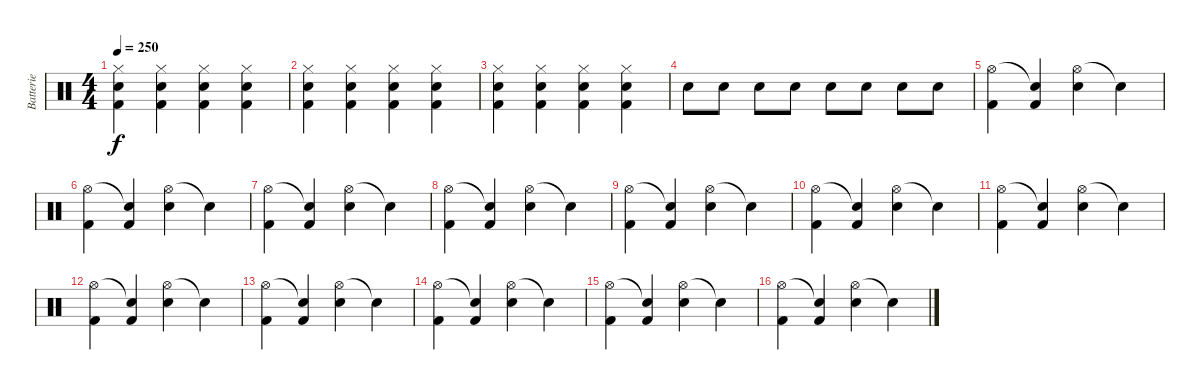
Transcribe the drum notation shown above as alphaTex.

\track ("Batterie" "Batterie") {instrument percussion}
\staff {score}
\articulation defaults
\ts (4 4)
\tempo 250
\clef neutral
\ks c
("Hi-Hat (closed)" "Snare (hit) 2" "Kick (hit) 2").4{dy f} ("Hi-Hat (closed)" "Snare (hit) 2" "Kick (hit) 2").4 ("Hi-Hat (closed)" "Snare (hit) 2" "Kick (hit) 2").4 ("Hi-Hat (closed)" "Snare (hit) 2" "Kick (hit) 2").4 |
("Hi-Hat (closed)" "Snare (hit) 2" "Kick (hit) 2").4 ("Hi-Hat (closed)" "Snare (hit) 2" "Kick (hit) 2").4 ("Hi-Hat (closed)" "Snare (hit) 2" "Kick (hit) 2").4 ("Hi-Hat (closed)" "Snare (hit) 2" "Kick (hit) 2").4 |
("Hi-Hat (closed)" "Snare (hit) 2" "Kick (hit) 2").4 ("Hi-Hat (closed)" "Snare (hit) 2" "Kick (hit) 2").4 ("Hi-Hat (closed)" "Snare (hit) 2" "Kick (hit) 2").4 ("Hi-Hat (closed)" "Snare (hit) 2" "Kick (hit) 2").4 |
"Electric Snare (hit)".8 "Electric Snare (hit)".8 "Electric Snare (hit)".8 "Electric Snare (hit)".8 "Electric Snare (hit)".8 "Electric Snare (hit)".8 "Electric Snare (hit)".8 "Electric Snare (hit)".8 |
("Hi-Hat (open)" "Kick (hit) 2").4 ("Snare (hit)"{t} "Kick (hit) 2").4 ("Hi-Hat (open)" "Electric Snare (hit)").4 "Snare (hit)"{t}.4 |
("Hi-Hat (open)" "Kick (hit) 2").4 ("Snare (hit)"{t} "Kick (hit) 2").4 ("Hi-Hat (open)" "Electric Snare (hit)").4 "Snare (hit)"{t}.4 |
("Hi-Hat (open)" "Kick (hit) 2").4 ("Snare (hit)"{t} "Kick (hit) 2").4 ("Hi-Hat (open)" "Electric Snare (hit)").4 "Snare (hit)"{t}.4 |
("Hi-Hat (open)" "Kick (hit) 2").4 ("Snare (hit)"{t} "Kick (hit) 2").4 ("Hi-Hat (open)" "Electric Snare (hit)").4 "Snare (hit)"{t}.4 |
("Hi-Hat (open)" "Kick (hit) 2").4 ("Snare (hit)"{t} "Kick (hit) 2").4 ("Hi-Hat (open)" "Electric Snare (hit)").4 "Snare (hit)"{t}.4 |
("Hi-Hat (open)" "Kick (hit) 2").4 ("Snare (hit)"{t} "Kick (hit) 2").4 ("Hi-Hat (open)" "Electric Snare (hit)").4 "Snare (hit)"{t}.4 |
("Hi-Hat (open)" "Kick (hit) 2").4 ("Snare (hit)"{t} "Kick (hit) 2").4 ("Hi-Hat (open)" "Electric Snare (hit)").4 "Snare (hit)"{t}.4 |
("Hi-Hat (open)" "Kick (hit) 2").4 ("Snare (hit)"{t} "Kick (hit) 2").4 ("Hi-Hat (open)" "Electric Snare (hit)").4 "Snare (hit)"{t}.4 |
("Hi-Hat (open)" "Kick (hit) 2").4 ("Snare (hit)"{t} "Kick (hit) 2").4 ("Hi-Hat (open)" "Electric Snare (hit)").4 "Snare (hit)"{t}.4 |
("Hi-Hat (open)" "Kick (hit) 2").4 ("Snare (hit)"{t} "Kick (hit) 2").4 ("Hi-Hat (open)" "Electric Snare (hit)").4 "Snare (hit)"{t}.4 |
("Hi-Hat (open)" "Kick (hit) 2").4 ("Snare (hit)"{t} "Kick (hit) 2").4 ("Hi-Hat (open)" "Electric Snare (hit)").4 "Snare (hit)"{t}.4 |
("Hi-Hat (open)" "Kick (hit) 2").4 ("Snare (hit)"{t} "Kick (hit) 2").4 ("Hi-Hat (open)" "Electric Snare (hit)").4 "Snare (hit)"{t}.4
